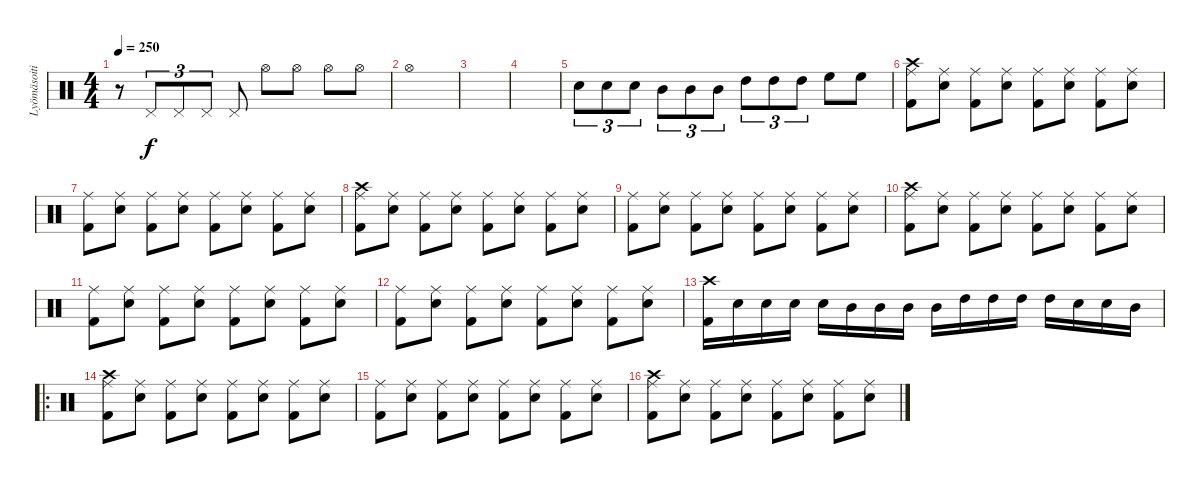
\track ("Lyömäsoitin" "Lyömäsoiti") {instrument percussion}
\staff {score}
\articulation defaults
\ts (4 4)
\tempo 250
\clef neutral
\ks c
r.8{dy f} "Pedal Hi-Hat (hit)".8{tu (3 2)} "Pedal Hi-Hat (hit)".8{tu (3 2)} "Pedal Hi-Hat (hit)".8{tu (3 2)} "Pedal Hi-Hat (hit)".8 "Hi-Hat (open)".8 "Hi-Hat (open)".8 "Hi-Hat (open)".8 "Hi-Hat (open)".8 |
"Hi-Hat (open)".1 |
|
|
"Electric Snare (hit)".8{tu (3 2)} "Electric Snare (hit)".8{tu (3 2)} "Electric Snare (hit)".8{tu (3 2)} "Mid Tom (hit)".8{tu (3 2)} "Mid Tom (hit)".8{tu (3 2)} "Mid Tom (hit)".8{tu (3 2)} "High Tom (hit)".8{tu (3 2)} "High Tom (hit)".8{tu (3 2)} "High Tom (hit)".8{tu (3 2)} "High Floor Tom (hit)".8 "High Floor Tom (hit)".8 |
("Crash high (hit)" "Ride (middle)" "Kick (hit) 2").8 ("Ride (middle)" "Electric Snare (hit)").8 ("Ride (middle)" "Kick (hit) 2").8 ("Ride (middle)" "Electric Snare (hit)").8 ("Ride (middle)" "Kick (hit) 2").8 ("Ride (middle)" "Electric Snare (hit)").8 ("Ride (middle)" "Kick (hit) 2").8 ("Ride (middle)" "Electric Snare (hit)").8 |
("Ride (middle)" "Kick (hit) 2").8 ("Ride (middle)" "Electric Snare (hit)").8 ("Ride (middle)" "Kick (hit) 2").8 ("Ride (middle)" "Electric Snare (hit)").8 ("Ride (middle)" "Kick (hit) 2").8 ("Ride (middle)" "Electric Snare (hit)").8 ("Ride (middle)" "Kick (hit) 2").8 ("Ride (middle)" "Electric Snare (hit)").8 |
("Crash high (hit)" "Ride (middle)" "Kick (hit) 2").8 ("Ride (middle)" "Electric Snare (hit)").8 ("Ride (middle)" "Kick (hit) 2").8 ("Ride (middle)" "Electric Snare (hit)").8 ("Ride (middle)" "Kick (hit) 2").8 ("Ride (middle)" "Electric Snare (hit)").8 ("Ride (middle)" "Kick (hit) 2").8 ("Ride (middle)" "Electric Snare (hit)").8 |
("Ride (middle)" "Kick (hit) 2").8 ("Ride (middle)" "Electric Snare (hit)").8 ("Ride (middle)" "Kick (hit) 2").8 ("Ride (middle)" "Electric Snare (hit)").8 ("Ride (middle)" "Kick (hit) 2").8 ("Ride (middle)" "Electric Snare (hit)").8 ("Ride (middle)" "Kick (hit) 2").8 ("Ride (middle)" "Electric Snare (hit)").8 |
("Crash high (hit)" "Ride (middle)" "Kick (hit) 2").8 ("Ride (middle)" "Electric Snare (hit)").8 ("Ride (middle)" "Kick (hit) 2").8 ("Ride (middle)" "Electric Snare (hit)").8 ("Ride (middle)" "Kick (hit) 2").8 ("Ride (middle)" "Electric Snare (hit)").8 ("Ride (middle)" "Kick (hit) 2").8 ("Ride (middle)" "Electric Snare (hit)").8 |
("Ride (middle)" "Kick (hit) 2").8 ("Ride (middle)" "Electric Snare (hit)").8 ("Ride (middle)" "Kick (hit) 2").8 ("Ride (middle)" "Electric Snare (hit)").8 ("Ride (middle)" "Kick (hit) 2").8 ("Ride (middle)" "Electric Snare (hit)").8 ("Ride (middle)" "Kick (hit) 2").8 ("Ride (middle)" "Electric Snare (hit)").8 |
("Ride (middle)" "Kick (hit) 2").8 ("Ride (middle)" "Electric Snare (hit)").8 ("Ride (middle)" "Kick (hit) 2").8 ("Ride (middle)" "Electric Snare (hit)").8 ("Ride (middle)" "Kick (hit) 2").8 ("Ride (middle)" "Electric Snare (hit)").8 ("Ride (middle)" "Kick (hit) 2").8 ("Ride (middle)" "Electric Snare (hit)").8 |
("Crash high (hit)" "Kick (hit) 2").16 "Electric Snare (hit)".16 "Electric Snare (hit)".16 "Electric Snare (hit)".16 "Electric Snare (hit)".16 "Mid Tom (hit)".16 "Mid Tom (hit)".16 "Mid Tom (hit)".16 "Mid Tom (hit)".16 "High Tom (hit)".16 "High Tom (hit)".16 "High Tom (hit)".16 "High Tom (hit)".16 "Electric Snare (hit)".16 "Electric Snare (hit)".16 "Mid Tom (hit)".16 |
\ro
("Crash high (hit)" "Ride (middle)" "Kick (hit) 2").8 ("Ride (middle)" "Electric Snare (hit)").8 ("Ride (middle)" "Kick (hit) 2").8 ("Ride (middle)" "Electric Snare (hit)").8 ("Ride (middle)" "Kick (hit) 2").8 ("Ride (middle)" "Electric Snare (hit)").8 ("Ride (middle)" "Kick (hit) 2").8 ("Ride (middle)" "Electric Snare (hit)").8 |
("Ride (middle)" "Kick (hit) 2").8 ("Ride (middle)" "Electric Snare (hit)").8 ("Ride (middle)" "Kick (hit) 2").8 ("Ride (middle)" "Electric Snare (hit)").8 ("Ride (middle)" "Kick (hit) 2").8 ("Ride (middle)" "Electric Snare (hit)").8 ("Ride (middle)" "Kick (hit) 2").8 ("Ride (middle)" "Electric Snare (hit)").8 |
("Crash high (hit)" "Ride (middle)" "Kick (hit) 2").8 ("Ride (middle)" "Electric Snare (hit)").8 ("Ride (middle)" "Kick (hit) 2").8 ("Ride (middle)" "Electric Snare (hit)").8 ("Ride (middle)" "Kick (hit) 2").8 ("Ride (middle)" "Electric Snare (hit)").8 ("Ride (middle)" "Kick (hit) 2").8 ("Ride (middle)" "Electric Snare (hit)").8
